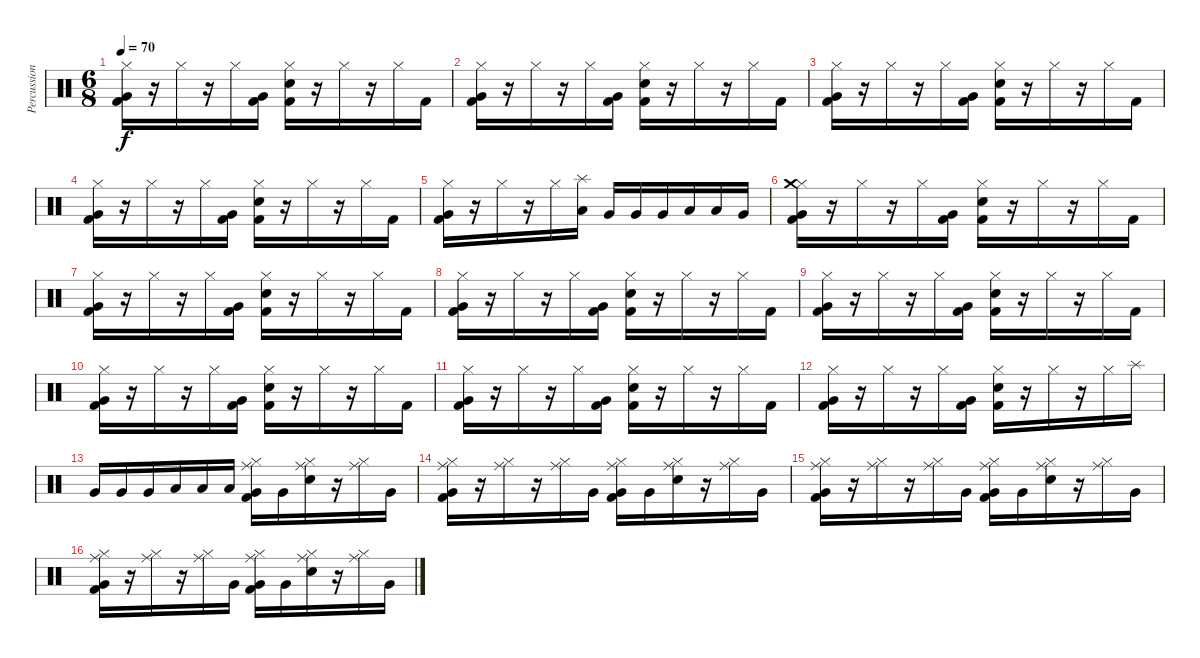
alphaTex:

\track ("Percussion" "Percussion") {instrument percussion}
\staff {score}
\articulation defaults
\ts (6 8)
\tempo 70
\clef neutral
\ks c
("Very Low Tom (hit)" "Hi-Hat (closed)" "Kick (hit) 2").16{dy f} r.16 "Hi-Hat (closed)".16 r.16 "Hi-Hat (closed)".16 ("Kick (hit) 2" "Very Low Tom (hit)").16 ("Hi-Hat (closed)" "Electric Snare (hit)" "Kick (hit) 2").16 r.16 "Hi-Hat (closed)".16 r.16 "Hi-Hat (closed)".16 "Kick (hit) 2".16 |
("Very Low Tom (hit)" "Hi-Hat (closed)" "Kick (hit) 2").16 r.16 "Hi-Hat (closed)".16 r.16 "Hi-Hat (closed)".16 ("Kick (hit) 2" "Very Low Tom (hit)").16 ("Hi-Hat (closed)" "Electric Snare (hit)" "Kick (hit) 2").16 r.16 "Hi-Hat (closed)".16 r.16 "Hi-Hat (closed)".16 "Kick (hit) 2".16 |
("Very Low Tom (hit)" "Hi-Hat (closed)" "Kick (hit) 2").16 r.16 "Hi-Hat (closed)".16 r.16 "Hi-Hat (closed)".16 ("Kick (hit) 2" "Very Low Tom (hit)").16 ("Hi-Hat (closed)" "Electric Snare (hit)" "Kick (hit) 2").16 r.16 "Hi-Hat (closed)".16 r.16 "Hi-Hat (closed)".16 "Kick (hit) 2".16 |
("Very Low Tom (hit)" "Hi-Hat (closed)" "Kick (hit) 2").16 r.16 "Hi-Hat (closed)".16 r.16 "Hi-Hat (closed)".16 ("Kick (hit) 2" "Very Low Tom (hit)").16 ("Hi-Hat (closed)" "Electric Snare (hit)" "Kick (hit) 2").16 r.16 "Hi-Hat (closed)".16 r.16 "Hi-Hat (closed)".16 "Kick (hit) 2".16 |
("Very Low Tom (hit)" "Hi-Hat (closed)" "Kick (hit) 2").16 r.16 "Hi-Hat (closed)".16 r.16 "Hi-Hat (closed)".16 ("Splash (hit)" "Low Floor Tom (hit)").16 "Very Low Tom (hit)".16 "Very Low Tom (hit)".16 "Very Low Tom (hit)".16 "Low Floor Tom (hit)".16 "Low Floor Tom (hit)".16 "Very Low Tom (hit)".16 |
("Very Low Tom (hit)" "Hi-Hat (closed)" "Crash medium (hit)" "Kick (hit) 2").16 r.16 "Hi-Hat (closed)".16 r.16 "Hi-Hat (closed)".16 ("Kick (hit) 2" "Very Low Tom (hit)").16 ("Hi-Hat (closed)" "Electric Snare (hit)" "Kick (hit) 2").16 r.16 "Hi-Hat (closed)".16 r.16 "Hi-Hat (closed)".16 "Kick (hit) 2".16 |
("Very Low Tom (hit)" "Hi-Hat (closed)" "Kick (hit) 2").16 r.16 "Hi-Hat (closed)".16 r.16 "Hi-Hat (closed)".16 ("Kick (hit) 2" "Very Low Tom (hit)").16 ("Hi-Hat (closed)" "Electric Snare (hit)" "Kick (hit) 2").16 r.16 "Hi-Hat (closed)".16 r.16 "Hi-Hat (closed)".16 "Kick (hit) 2".16 |
("Very Low Tom (hit)" "Hi-Hat (closed)" "Kick (hit) 2").16 r.16 "Hi-Hat (closed)".16 r.16 "Hi-Hat (closed)".16 ("Kick (hit) 2" "Very Low Tom (hit)").16 ("Hi-Hat (closed)" "Electric Snare (hit)" "Kick (hit) 2").16 r.16 "Hi-Hat (closed)".16 r.16 "Hi-Hat (closed)".16 "Kick (hit) 2".16 |
("Very Low Tom (hit)" "Hi-Hat (closed)" "Kick (hit) 2").16 r.16 "Hi-Hat (closed)".16 r.16 "Hi-Hat (closed)".16 ("Kick (hit) 2" "Very Low Tom (hit)").16 ("Hi-Hat (closed)" "Electric Snare (hit)" "Kick (hit) 2").16 r.16 "Hi-Hat (closed)".16 r.16 "Hi-Hat (closed)".16 "Kick (hit) 2".16 |
("Very Low Tom (hit)" "Hi-Hat (closed)" "Kick (hit) 2").16 r.16 "Hi-Hat (closed)".16 r.16 "Hi-Hat (closed)".16 ("Kick (hit) 2" "Very Low Tom (hit)").16 ("Hi-Hat (closed)" "Electric Snare (hit)" "Kick (hit) 2").16 r.16 "Hi-Hat (closed)".16 r.16 "Hi-Hat (closed)".16 "Kick (hit) 2".16 |
("Very Low Tom (hit)" "Hi-Hat (closed)" "Kick (hit) 2").16 r.16 "Hi-Hat (closed)".16 r.16 "Hi-Hat (closed)".16 ("Kick (hit) 2" "Very Low Tom (hit)").16 ("Hi-Hat (closed)" "Electric Snare (hit)" "Kick (hit) 2").16 r.16 "Hi-Hat (closed)".16 r.16 "Hi-Hat (closed)".16 "Kick (hit) 2".16 |
("Very Low Tom (hit)" "Hi-Hat (closed)" "Kick (hit) 2").16 r.16 "Hi-Hat (closed)".16 r.16 "Hi-Hat (closed)".16 ("Kick (hit) 2" "Very Low Tom (hit)").16 ("Hi-Hat (closed)" "Electric Snare (hit)" "Kick (hit) 2").16 r.16 "Hi-Hat (closed)".16 r.16 "Hi-Hat (closed)".16 "Splash (hit)".16 |
"Very Low Tom (hit)".16 "Very Low Tom (hit)".16 "Very Low Tom (hit)".16 "Low Floor Tom (hit)".16 "Low Floor Tom (hit)".16 "Low Floor Tom (hit)".16 ("Ride (middle)" "Very Low Tom (hit)" "Hi-Hat (closed)" "Kick (hit) 2").16 "Very Low Tom (hit)".16 ("Ride (middle)" "Electric Snare (hit)" "Hi-Hat (closed)").16 r.16 ("Ride (middle)" "Hi-Hat (closed)").16 "Very Low Tom (hit)".16 |
("Ride (middle)" "Very Low Tom (hit)" "Hi-Hat (closed)" "Kick (hit) 2").16 r.16 ("Ride (middle)" "Hi-Hat (closed)").16 r.16 ("Ride (middle)" "Hi-Hat (closed)").16 "Very Low Tom (hit)".16 ("Ride (middle)" "Very Low Tom (hit)" "Hi-Hat (closed)" "Kick (hit) 2").16 "Very Low Tom (hit)".16 ("Ride (middle)" "Electric Snare (hit)" "Hi-Hat (closed)").16 r.16 ("Ride (middle)" "Hi-Hat (closed)").16 "Very Low Tom (hit)".16 |
("Ride (middle)" "Very Low Tom (hit)" "Hi-Hat (closed)" "Kick (hit) 2").16 r.16 ("Ride (middle)" "Hi-Hat (closed)").16 r.16 ("Ride (middle)" "Hi-Hat (closed)").16 "Very Low Tom (hit)".16 ("Ride (middle)" "Very Low Tom (hit)" "Hi-Hat (closed)" "Kick (hit) 2").16 "Very Low Tom (hit)".16 ("Ride (middle)" "Electric Snare (hit)" "Hi-Hat (closed)").16 r.16 ("Ride (middle)" "Hi-Hat (closed)").16 "Very Low Tom (hit)".16 |
("Ride (middle)" "Very Low Tom (hit)" "Hi-Hat (closed)" "Kick (hit) 2").16 r.16 ("Ride (middle)" "Hi-Hat (closed)").16 r.16 ("Ride (middle)" "Hi-Hat (closed)").16 "Very Low Tom (hit)".16 ("Ride (middle)" "Very Low Tom (hit)" "Hi-Hat (closed)" "Kick (hit) 2").16 "Very Low Tom (hit)".16 ("Ride (middle)" "Electric Snare (hit)" "Hi-Hat (closed)").16 r.16 ("Ride (middle)" "Hi-Hat (closed)").16 "Very Low Tom (hit)".16
